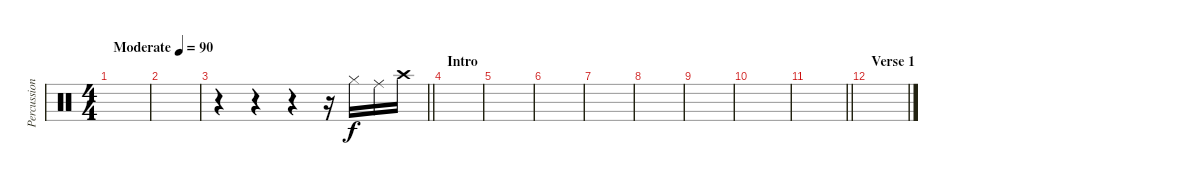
\track ("Percussion (Tom Decker)" "Percussion") {instrument percussion}
\staff {score}
\articulation defaults
\ts (4 4)
\tempo (90 "Moderate")
\clef neutral
\ks c
|
|
\barLineRight lightlight
r.4 r.4 r.4 r.16 "Hi-Hat (closed)".16 "Ride (middle)".16 "Crash high (hit)".16 |
\section ("" "Intro")
|
|
|
|
|
|
|
\barLineRight lightlight
|
\section ("" "Verse 1")
